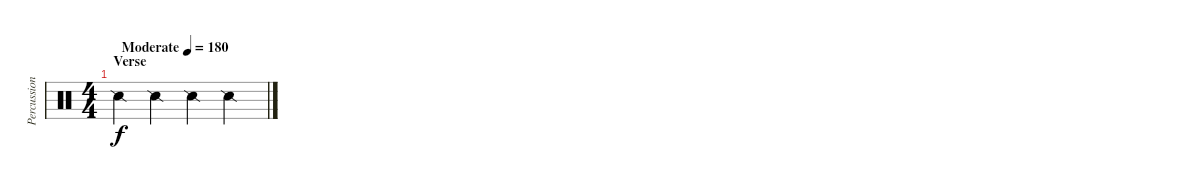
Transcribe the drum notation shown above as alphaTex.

\track ("Percussion" "Percussion") {instrument percussion}
\staff {score}
\articulation defaults
\ts (4 4)
\section ("" "Verse")
\tempo (180 "Moderate")
\clef neutral
\ks c "Snare (side stick) 2".4{dy f} "Snare (side stick) 2".4 "Snare (side stick) 2".4 "Snare (side stick) 2".4
